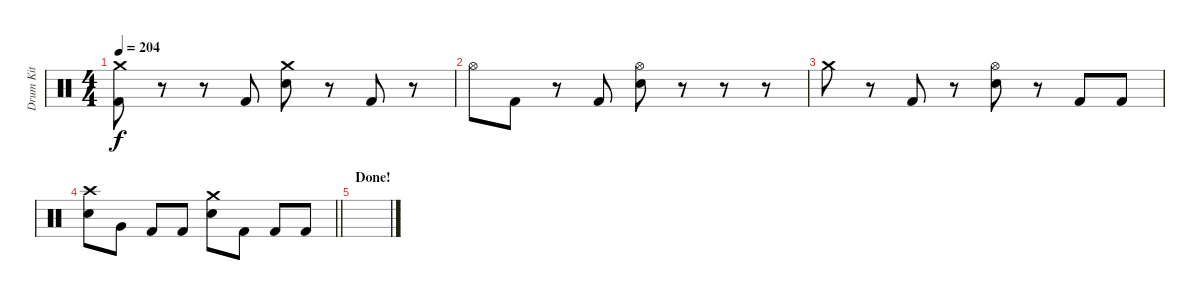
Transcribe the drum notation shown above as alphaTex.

\track ("Drum Kit" "Drum Kit") {instrument percussion}
\staff {score}
\articulation defaults
\ts (4 4)
\tempo 204
\clef neutral
\ks c
("Crash medium (hit)" "Kick (hit) 2").8{dy f} r.8 r.8 "Kick (hit) 2".8 ("Crash medium (hit)" "Snare (hit) 2").8 r.8 "Kick (hit) 2".8 r.8 |
"Hi-Hat (open)".8 "Kick (hit) 2".8 r.8 "Kick (hit) 2".8 ("Hi-Hat (open)" "Snare (hit) 2").8 r.8 r.8 r.8 |
"Crash medium (hit)".8 r.8 "Kick (hit) 2".8 r.8 ("Hi-Hat (open)" "Snare (hit) 2").8 r.8 "Kick (hit) 2".8 "Kick (hit) 2".8 |
\barLineRight lightlight
("Crash high (hit)" "Snare (hit) 2").8 "Very Low Tom (hit)".8 "Kick (hit) 2".8 "Kick (hit) 2".8 ("Crash medium (hit)" "Snare (hit) 2").8 "Kick (hit) 2".8 "Kick (hit) 2".8 "Kick (hit) 2".8 |
\section ("" "Done!")
